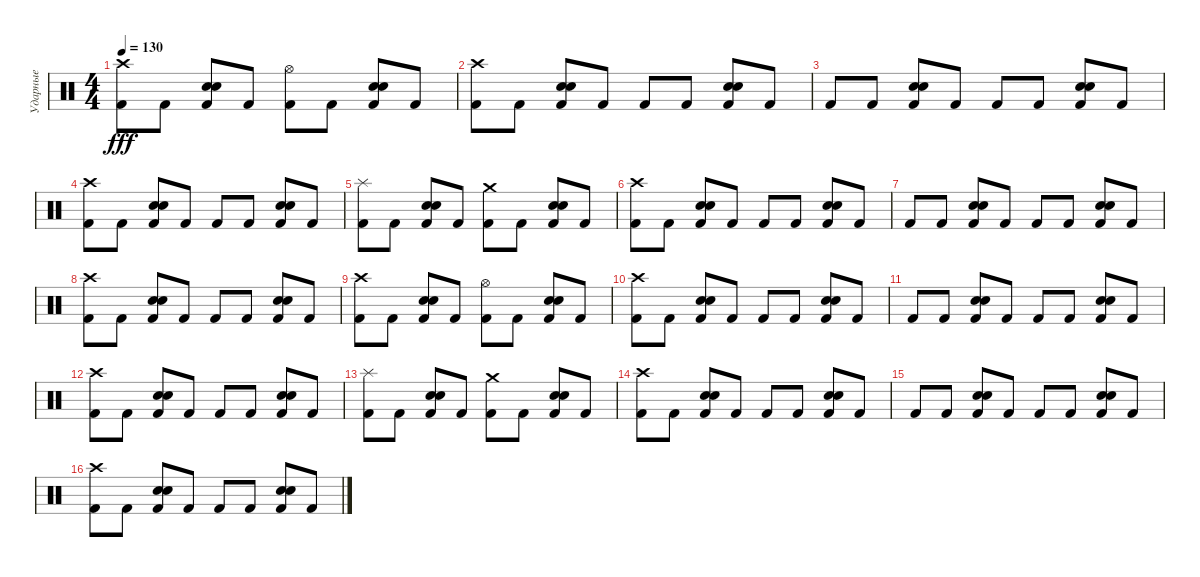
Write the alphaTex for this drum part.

\track ("Ударные" "Ударные") {instrument percussion}
\staff {score}
\articulation defaults
\ts (4 4)
\tempo 130
\clef neutral
\ks c
("Crash high (hit)" "Kick (hit) 2").8{dy fff} "Kick (hit) 2".8 ("Snare (hit) 2" "Snare (hit) 2" "Kick (hit) 2").8 "Kick (hit) 2".8 ("Hi-Hat (open)" "Kick (hit) 2").8 "Kick (hit) 2".8 ("Snare (hit) 2" "Snare (hit) 2" "Kick (hit) 2").8 "Kick (hit) 2".8 |
("Crash high (hit)" "Kick (hit) 2").8 "Kick (hit) 2".8 ("Snare (hit) 2" "Snare (hit) 2" "Kick (hit) 2").8 "Kick (hit) 2".8 "Kick (hit) 2".8 "Kick (hit) 2".8 ("Snare (hit) 2" "Snare (hit) 2" "Kick (hit) 2").8 "Kick (hit) 2".8 |
"Kick (hit) 2".8 "Kick (hit) 2".8 ("Snare (hit) 2" "Snare (hit) 2" "Kick (hit) 2").8 "Kick (hit) 2".8 "Kick (hit) 2".8 "Kick (hit) 2".8 ("Snare (hit) 2" "Snare (hit) 2" "Kick (hit) 2").8 "Kick (hit) 2".8 |
("Crash high (hit)" "Kick (hit) 2").8 "Kick (hit) 2".8 ("Snare (hit) 2" "Snare (hit) 2" "Kick (hit) 2").8 "Kick (hit) 2".8 "Kick (hit) 2".8 "Kick (hit) 2".8 ("Snare (hit) 2" "Snare (hit) 2" "Kick (hit) 2").8 "Kick (hit) 2".8 |
("Splash (hit)" "Kick (hit) 2").8 "Kick (hit) 2".8 ("Snare (hit) 2" "Snare (hit) 2" "Kick (hit) 2").8 "Kick (hit) 2".8 ("Crash medium (hit)" "Kick (hit) 2").8 "Kick (hit) 2".8 ("Snare (hit) 2" "Snare (hit) 2" "Kick (hit) 2").8 "Kick (hit) 2".8 |
("Crash high (hit)" "Kick (hit) 2").8 "Kick (hit) 2".8 ("Snare (hit) 2" "Snare (hit) 2" "Kick (hit) 2").8 "Kick (hit) 2".8 "Kick (hit) 2".8 "Kick (hit) 2".8 ("Snare (hit) 2" "Snare (hit) 2" "Kick (hit) 2").8 "Kick (hit) 2".8 |
"Kick (hit) 2".8 "Kick (hit) 2".8 ("Snare (hit) 2" "Snare (hit) 2" "Kick (hit) 2").8 "Kick (hit) 2".8 "Kick (hit) 2".8 "Kick (hit) 2".8 ("Snare (hit) 2" "Snare (hit) 2" "Kick (hit) 2").8 "Kick (hit) 2".8 |
("Crash high (hit)" "Kick (hit) 2").8 "Kick (hit) 2".8 ("Snare (hit) 2" "Snare (hit) 2" "Kick (hit) 2").8 "Kick (hit) 2".8 "Kick (hit) 2".8 "Kick (hit) 2".8 ("Snare (hit) 2" "Snare (hit) 2" "Kick (hit) 2").8 "Kick (hit) 2".8 |
("Crash high (hit)" "Kick (hit) 2").8 "Kick (hit) 2".8 ("Snare (hit) 2" "Snare (hit) 2" "Kick (hit) 2").8 "Kick (hit) 2".8 ("Hi-Hat (open)" "Kick (hit) 2").8 "Kick (hit) 2".8 ("Snare (hit) 2" "Snare (hit) 2" "Kick (hit) 2").8 "Kick (hit) 2".8 |
("Crash high (hit)" "Kick (hit) 2").8 "Kick (hit) 2".8 ("Snare (hit) 2" "Snare (hit) 2" "Kick (hit) 2").8 "Kick (hit) 2".8 "Kick (hit) 2".8 "Kick (hit) 2".8 ("Snare (hit) 2" "Snare (hit) 2" "Kick (hit) 2").8 "Kick (hit) 2".8 |
"Kick (hit) 2".8 "Kick (hit) 2".8 ("Snare (hit) 2" "Snare (hit) 2" "Kick (hit) 2").8 "Kick (hit) 2".8 "Kick (hit) 2".8 "Kick (hit) 2".8 ("Snare (hit) 2" "Snare (hit) 2" "Kick (hit) 2").8 "Kick (hit) 2".8 |
("Crash high (hit)" "Kick (hit) 2").8 "Kick (hit) 2".8 ("Snare (hit) 2" "Snare (hit) 2" "Kick (hit) 2").8 "Kick (hit) 2".8 "Kick (hit) 2".8 "Kick (hit) 2".8 ("Snare (hit) 2" "Snare (hit) 2" "Kick (hit) 2").8 "Kick (hit) 2".8 |
("Splash (hit)" "Kick (hit) 2").8 "Kick (hit) 2".8 ("Snare (hit) 2" "Snare (hit) 2" "Kick (hit) 2").8 "Kick (hit) 2".8 ("Crash medium (hit)" "Kick (hit) 2").8 "Kick (hit) 2".8 ("Snare (hit) 2" "Snare (hit) 2" "Kick (hit) 2").8 "Kick (hit) 2".8 |
("Crash high (hit)" "Kick (hit) 2").8 "Kick (hit) 2".8 ("Snare (hit) 2" "Snare (hit) 2" "Kick (hit) 2").8 "Kick (hit) 2".8 "Kick (hit) 2".8 "Kick (hit) 2".8 ("Snare (hit) 2" "Snare (hit) 2" "Kick (hit) 2").8 "Kick (hit) 2".8 |
"Kick (hit) 2".8 "Kick (hit) 2".8 ("Snare (hit) 2" "Snare (hit) 2" "Kick (hit) 2").8 "Kick (hit) 2".8 "Kick (hit) 2".8 "Kick (hit) 2".8 ("Snare (hit) 2" "Snare (hit) 2" "Kick (hit) 2").8 "Kick (hit) 2".8 |
("Crash high (hit)" "Kick (hit) 2").8 "Kick (hit) 2".8 ("Snare (hit) 2" "Snare (hit) 2" "Kick (hit) 2").8 "Kick (hit) 2".8 "Kick (hit) 2".8 "Kick (hit) 2".8 ("Snare (hit) 2" "Snare (hit) 2" "Kick (hit) 2").8 "Kick (hit) 2".8
